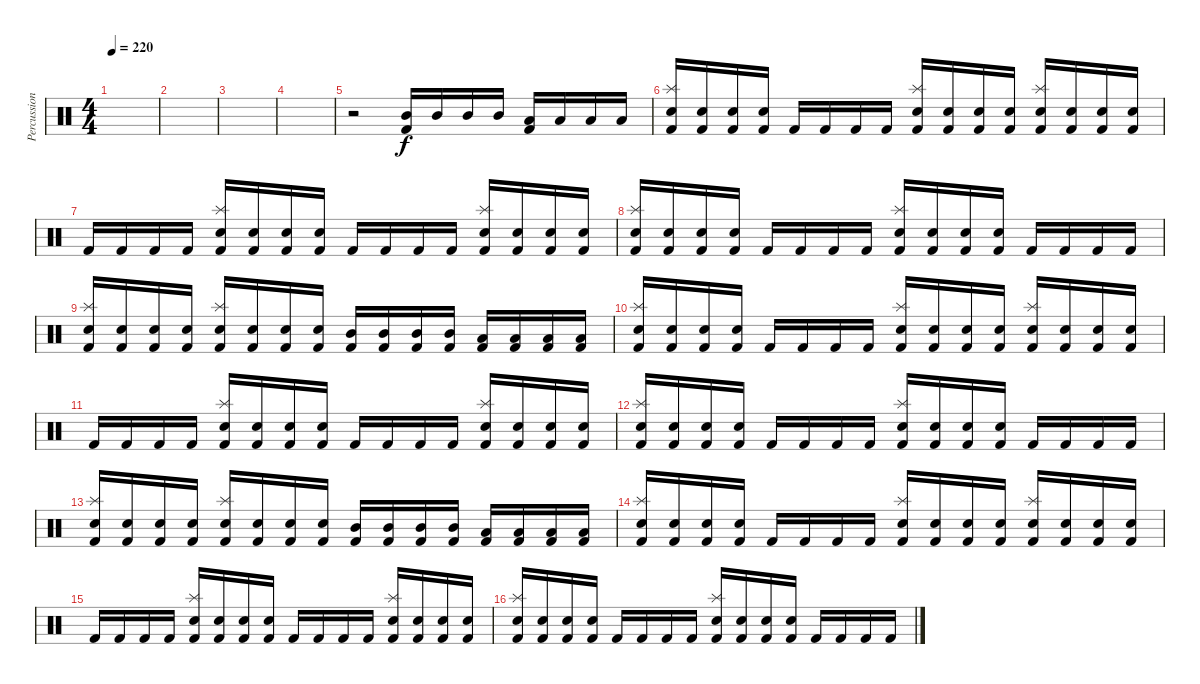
\track ("Percussion" "Percussion") {instrument percussion}
\staff {score}
\articulation defaults
\ts (4 4)
\tempo 220
\clef neutral
\ks c
|
|
|
|
r.2 ("Mid Tom (hit)" "Kick (hit) 2").16 "Mid Tom (hit)".16 "Mid Tom (hit)".16 "Mid Tom (hit)".16 ("Low Tom (hit)" "Kick (hit) 2").16 "Low Tom (hit)".16 "Low Tom (hit)".16 "Low Tom (hit)".16 |
("Splash (hit)" "Electric Snare (hit)" "Kick (hit) 2").16 ("Electric Snare (hit)" "Kick (hit) 2").16 ("Electric Snare (hit)" "Kick (hit) 2").16 ("Electric Snare (hit)" "Kick (hit) 2").16 "Kick (hit) 2".16 "Kick (hit) 2".16 "Kick (hit) 2".16 "Kick (hit) 2".16 ("Splash (hit)" "Electric Snare (hit)" "Kick (hit) 2").16 ("Electric Snare (hit)" "Kick (hit) 2").16 ("Electric Snare (hit)" "Kick (hit) 2").16 ("Electric Snare (hit)" "Kick (hit) 2").16 ("Splash (hit)" "Electric Snare (hit)" "Kick (hit) 2").16 ("Electric Snare (hit)" "Kick (hit) 2").16 ("Electric Snare (hit)" "Kick (hit) 2").16 ("Electric Snare (hit)" "Kick (hit) 2").16 |
"Kick (hit) 2".16 "Kick (hit) 2".16 "Kick (hit) 2".16 "Kick (hit) 2".16 ("Splash (hit)" "Electric Snare (hit)" "Kick (hit) 2").16 ("Electric Snare (hit)" "Kick (hit) 2").16 ("Electric Snare (hit)" "Kick (hit) 2").16 ("Electric Snare (hit)" "Kick (hit) 2").16 "Kick (hit) 2".16 "Kick (hit) 2".16 "Kick (hit) 2".16 "Kick (hit) 2".16 ("Splash (hit)" "Electric Snare (hit)" "Kick (hit) 2").16 ("Electric Snare (hit)" "Kick (hit) 2").16 ("Electric Snare (hit)" "Kick (hit) 2").16 ("Electric Snare (hit)" "Kick (hit) 2").16 |
("Splash (hit)" "Electric Snare (hit)" "Kick (hit) 2").16 ("Electric Snare (hit)" "Kick (hit) 2").16 ("Electric Snare (hit)" "Kick (hit) 2").16 ("Electric Snare (hit)" "Kick (hit) 2").16 "Kick (hit) 2".16 "Kick (hit) 2".16 "Kick (hit) 2".16 "Kick (hit) 2".16 ("Splash (hit)" "Electric Snare (hit)" "Kick (hit) 2").16 ("Electric Snare (hit)" "Kick (hit) 2").16 ("Electric Snare (hit)" "Kick (hit) 2").16 ("Electric Snare (hit)" "Kick (hit) 2").16 "Kick (hit) 2".16 "Kick (hit) 2".16 "Kick (hit) 2".16 "Kick (hit) 2".16 |
("Splash (hit)" "Electric Snare (hit)" "Kick (hit) 2").16 ("Electric Snare (hit)" "Kick (hit) 2").16 ("Electric Snare (hit)" "Kick (hit) 2").16 ("Electric Snare (hit)" "Kick (hit) 2").16 ("Splash (hit)" "Electric Snare (hit)" "Kick (hit) 2").16 ("Electric Snare (hit)" "Kick (hit) 2").16 ("Electric Snare (hit)" "Kick (hit) 2").16 ("Electric Snare (hit)" "Kick (hit) 2").16 ("Mid Tom (hit)" "Kick (hit) 2").16 ("Mid Tom (hit)" "Kick (hit) 2").16 ("Mid Tom (hit)" "Kick (hit) 2").16 ("Mid Tom (hit)" "Kick (hit) 2").16 ("Low Tom (hit)" "Kick (hit) 2").16 ("Low Tom (hit)" "Kick (hit) 2").16 ("Low Tom (hit)" "Kick (hit) 2").16 ("Low Tom (hit)" "Kick (hit) 2").16 |
("Splash (hit)" "Electric Snare (hit)" "Kick (hit) 2").16 ("Electric Snare (hit)" "Kick (hit) 2").16 ("Electric Snare (hit)" "Kick (hit) 2").16 ("Electric Snare (hit)" "Kick (hit) 2").16 "Kick (hit) 2".16 "Kick (hit) 2".16 "Kick (hit) 2".16 "Kick (hit) 2".16 ("Splash (hit)" "Electric Snare (hit)" "Kick (hit) 2").16 ("Electric Snare (hit)" "Kick (hit) 2").16 ("Electric Snare (hit)" "Kick (hit) 2").16 ("Electric Snare (hit)" "Kick (hit) 2").16 ("Splash (hit)" "Electric Snare (hit)" "Kick (hit) 2").16 ("Electric Snare (hit)" "Kick (hit) 2").16 ("Electric Snare (hit)" "Kick (hit) 2").16 ("Electric Snare (hit)" "Kick (hit) 2").16 |
"Kick (hit) 2".16 "Kick (hit) 2".16 "Kick (hit) 2".16 "Kick (hit) 2".16 ("Splash (hit)" "Electric Snare (hit)" "Kick (hit) 2").16 ("Electric Snare (hit)" "Kick (hit) 2").16 ("Electric Snare (hit)" "Kick (hit) 2").16 ("Electric Snare (hit)" "Kick (hit) 2").16 "Kick (hit) 2".16 "Kick (hit) 2".16 "Kick (hit) 2".16 "Kick (hit) 2".16 ("Splash (hit)" "Electric Snare (hit)" "Kick (hit) 2").16 ("Electric Snare (hit)" "Kick (hit) 2").16 ("Electric Snare (hit)" "Kick (hit) 2").16 ("Electric Snare (hit)" "Kick (hit) 2").16 |
("Splash (hit)" "Electric Snare (hit)" "Kick (hit) 2").16 ("Electric Snare (hit)" "Kick (hit) 2").16 ("Electric Snare (hit)" "Kick (hit) 2").16 ("Electric Snare (hit)" "Kick (hit) 2").16 "Kick (hit) 2".16 "Kick (hit) 2".16 "Kick (hit) 2".16 "Kick (hit) 2".16 ("Splash (hit)" "Electric Snare (hit)" "Kick (hit) 2").16 ("Electric Snare (hit)" "Kick (hit) 2").16 ("Electric Snare (hit)" "Kick (hit) 2").16 ("Electric Snare (hit)" "Kick (hit) 2").16 "Kick (hit) 2".16 "Kick (hit) 2".16 "Kick (hit) 2".16 "Kick (hit) 2".16 |
("Splash (hit)" "Electric Snare (hit)" "Kick (hit) 2").16 ("Electric Snare (hit)" "Kick (hit) 2").16 ("Electric Snare (hit)" "Kick (hit) 2").16 ("Electric Snare (hit)" "Kick (hit) 2").16 ("Splash (hit)" "Electric Snare (hit)" "Kick (hit) 2").16 ("Electric Snare (hit)" "Kick (hit) 2").16 ("Electric Snare (hit)" "Kick (hit) 2").16 ("Electric Snare (hit)" "Kick (hit) 2").16 ("Mid Tom (hit)" "Kick (hit) 2").16 ("Mid Tom (hit)" "Kick (hit) 2").16 ("Mid Tom (hit)" "Kick (hit) 2").16 ("Mid Tom (hit)" "Kick (hit) 2").16 ("Low Tom (hit)" "Kick (hit) 2").16 ("Low Tom (hit)" "Kick (hit) 2").16 ("Low Tom (hit)" "Kick (hit) 2").16 ("Low Tom (hit)" "Kick (hit) 2").16 |
("Splash (hit)" "Electric Snare (hit)" "Kick (hit) 2").16 ("Electric Snare (hit)" "Kick (hit) 2").16 ("Electric Snare (hit)" "Kick (hit) 2").16 ("Electric Snare (hit)" "Kick (hit) 2").16 "Kick (hit) 2".16 "Kick (hit) 2".16 "Kick (hit) 2".16 "Kick (hit) 2".16 ("Splash (hit)" "Electric Snare (hit)" "Kick (hit) 2").16 ("Electric Snare (hit)" "Kick (hit) 2").16 ("Electric Snare (hit)" "Kick (hit) 2").16 ("Electric Snare (hit)" "Kick (hit) 2").16 ("Splash (hit)" "Electric Snare (hit)" "Kick (hit) 2").16 ("Electric Snare (hit)" "Kick (hit) 2").16 ("Electric Snare (hit)" "Kick (hit) 2").16 ("Electric Snare (hit)" "Kick (hit) 2").16 |
"Kick (hit) 2".16 "Kick (hit) 2".16 "Kick (hit) 2".16 "Kick (hit) 2".16 ("Splash (hit)" "Electric Snare (hit)" "Kick (hit) 2").16 ("Electric Snare (hit)" "Kick (hit) 2").16 ("Electric Snare (hit)" "Kick (hit) 2").16 ("Electric Snare (hit)" "Kick (hit) 2").16 "Kick (hit) 2".16 "Kick (hit) 2".16 "Kick (hit) 2".16 "Kick (hit) 2".16 ("Splash (hit)" "Electric Snare (hit)" "Kick (hit) 2").16 ("Electric Snare (hit)" "Kick (hit) 2").16 ("Electric Snare (hit)" "Kick (hit) 2").16 ("Electric Snare (hit)" "Kick (hit) 2").16 |
("Splash (hit)" "Electric Snare (hit)" "Kick (hit) 2").16 ("Electric Snare (hit)" "Kick (hit) 2").16 ("Electric Snare (hit)" "Kick (hit) 2").16 ("Electric Snare (hit)" "Kick (hit) 2").16 "Kick (hit) 2".16 "Kick (hit) 2".16 "Kick (hit) 2".16 "Kick (hit) 2".16 ("Splash (hit)" "Electric Snare (hit)" "Kick (hit) 2").16 ("Electric Snare (hit)" "Kick (hit) 2").16 ("Electric Snare (hit)" "Kick (hit) 2").16 ("Electric Snare (hit)" "Kick (hit) 2").16 "Kick (hit) 2".16 "Kick (hit) 2".16 "Kick (hit) 2".16 "Kick (hit) 2".16
